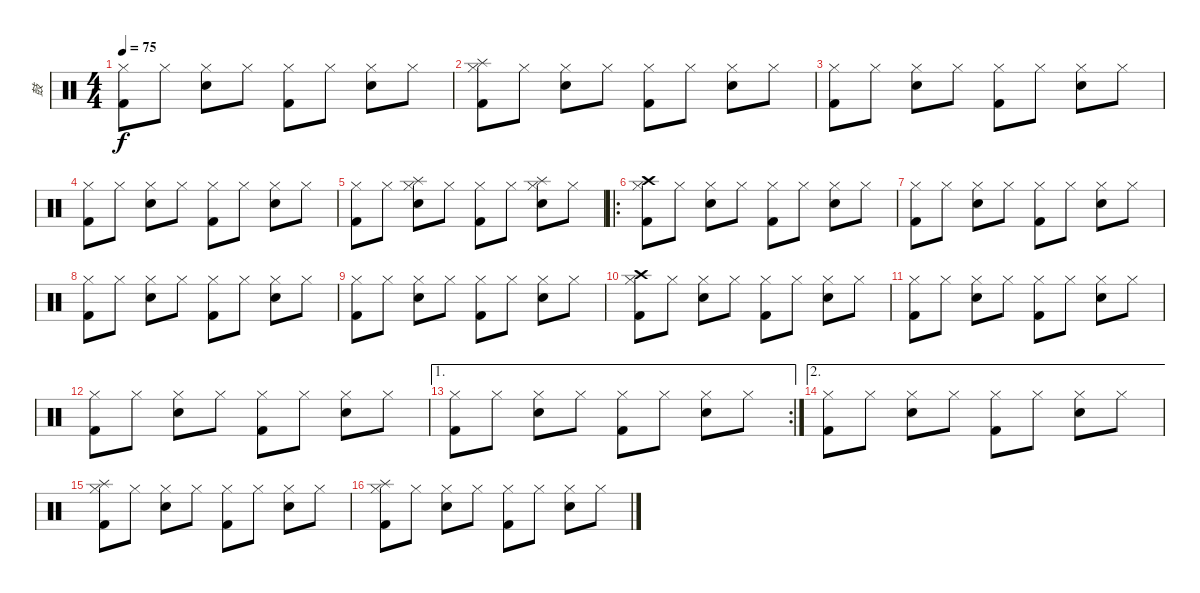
\track ("鼓" "鼓") {instrument percussion}
\staff {score}
\articulation defaults
\ts (4 4)
\tempo 75
\clef neutral
\ks c
("Hi-Hat (closed)" "Kick (hit) 2").8{dy f} "Hi-Hat (closed)".8 ("Hi-Hat (closed)" "Electric Snare (hit)").8 "Hi-Hat (closed)".8 ("Hi-Hat (closed)" "Kick (hit) 2").8 "Hi-Hat (closed)".8 ("Hi-Hat (closed)" "Electric Snare (hit)").8 "Hi-Hat (closed)".8 |
("Hi-Hat (closed)" "Splash (hit)" "Kick (hit) 2").8 "Hi-Hat (closed)".8 ("Hi-Hat (closed)" "Electric Snare (hit)").8 "Hi-Hat (closed)".8 ("Hi-Hat (closed)" "Kick (hit) 2").8 "Hi-Hat (closed)".8 ("Hi-Hat (closed)" "Electric Snare (hit)").8 "Hi-Hat (closed)".8 |
("Hi-Hat (closed)" "Kick (hit) 2").8 "Hi-Hat (closed)".8 ("Hi-Hat (closed)" "Electric Snare (hit)").8 "Hi-Hat (closed)".8 ("Hi-Hat (closed)" "Kick (hit) 2").8 "Hi-Hat (closed)".8 ("Hi-Hat (closed)" "Electric Snare (hit)").8 "Hi-Hat (closed)".8 |
("Hi-Hat (closed)" "Kick (hit) 2").8 "Hi-Hat (closed)".8 ("Hi-Hat (closed)" "Electric Snare (hit)").8 "Hi-Hat (closed)".8 ("Hi-Hat (closed)" "Kick (hit) 2").8 "Hi-Hat (closed)".8 ("Hi-Hat (closed)" "Electric Snare (hit)").8 "Hi-Hat (closed)".8 |
("Hi-Hat (closed)" "Kick (hit) 2").8 "Hi-Hat (closed)".8 ("Hi-Hat (closed)" "Splash (hit)" "Electric Snare (hit)").8 "Hi-Hat (closed)".8 ("Hi-Hat (closed)" "Kick (hit) 2").8 "Hi-Hat (closed)".8 ("Hi-Hat (closed)" "Splash (hit)" "Electric Snare (hit)").8 "Hi-Hat (closed)".8 |
\ro
("Hi-Hat (closed)" "Crash high (hit)" "Kick (hit) 2").8 "Hi-Hat (closed)".8 ("Hi-Hat (closed)" "Electric Snare (hit)").8 "Hi-Hat (closed)".8 ("Hi-Hat (closed)" "Kick (hit) 2").8 "Hi-Hat (closed)".8 ("Hi-Hat (closed)" "Electric Snare (hit)").8 "Hi-Hat (closed)".8 |
("Hi-Hat (closed)" "Kick (hit) 2").8 "Hi-Hat (closed)".8 ("Hi-Hat (closed)" "Electric Snare (hit)").8 "Hi-Hat (closed)".8 ("Hi-Hat (closed)" "Kick (hit) 2").8 "Hi-Hat (closed)".8 ("Hi-Hat (closed)" "Electric Snare (hit)").8 "Hi-Hat (closed)".8 |
("Hi-Hat (closed)" "Kick (hit) 2").8 "Hi-Hat (closed)".8 ("Hi-Hat (closed)" "Electric Snare (hit)").8 "Hi-Hat (closed)".8 ("Hi-Hat (closed)" "Kick (hit) 2").8 "Hi-Hat (closed)".8 ("Hi-Hat (closed)" "Electric Snare (hit)").8 "Hi-Hat (closed)".8 |
("Hi-Hat (closed)" "Kick (hit) 2").8 "Hi-Hat (closed)".8 ("Hi-Hat (closed)" "Electric Snare (hit)").8 "Hi-Hat (closed)".8 ("Hi-Hat (closed)" "Kick (hit) 2").8 "Hi-Hat (closed)".8 ("Hi-Hat (closed)" "Electric Snare (hit)").8 "Hi-Hat (closed)".8 |
("Hi-Hat (closed)" "Crash high (hit)" "Kick (hit) 2").8 "Hi-Hat (closed)".8 ("Hi-Hat (closed)" "Electric Snare (hit)").8 "Hi-Hat (closed)".8 ("Hi-Hat (closed)" "Kick (hit) 2").8 "Hi-Hat (closed)".8 ("Hi-Hat (closed)" "Electric Snare (hit)").8 "Hi-Hat (closed)".8 |
("Hi-Hat (closed)" "Kick (hit) 2").8 "Hi-Hat (closed)".8 ("Hi-Hat (closed)" "Electric Snare (hit)").8 "Hi-Hat (closed)".8 ("Hi-Hat (closed)" "Kick (hit) 2").8 "Hi-Hat (closed)".8 ("Hi-Hat (closed)" "Electric Snare (hit)").8 "Hi-Hat (closed)".8 |
("Hi-Hat (closed)" "Kick (hit) 2").8 "Hi-Hat (closed)".8 ("Hi-Hat (closed)" "Electric Snare (hit)").8 "Hi-Hat (closed)".8 ("Hi-Hat (closed)" "Kick (hit) 2").8 "Hi-Hat (closed)".8 ("Hi-Hat (closed)" "Electric Snare (hit)").8 "Hi-Hat (closed)".8 |
\ae 1
\rc 2
("Hi-Hat (closed)" "Kick (hit) 2").8 "Hi-Hat (closed)".8 ("Hi-Hat (closed)" "Electric Snare (hit)").8 "Hi-Hat (closed)".8 ("Hi-Hat (closed)" "Kick (hit) 2").8 "Hi-Hat (closed)".8 ("Hi-Hat (closed)" "Electric Snare (hit)").8 "Hi-Hat (closed)".8 |
\ae 2
("Hi-Hat (closed)" "Kick (hit) 2").8 "Hi-Hat (closed)".8 ("Hi-Hat (closed)" "Electric Snare (hit)").8 "Hi-Hat (closed)".8 ("Hi-Hat (closed)" "Kick (hit) 2").8 "Hi-Hat (closed)".8 ("Hi-Hat (closed)" "Electric Snare (hit)").8 "Hi-Hat (closed)".8 |
("Hi-Hat (closed)" "Splash (hit)" "Kick (hit) 2").8 "Hi-Hat (closed)".8 ("Hi-Hat (closed)" "Electric Snare (hit)").8 "Hi-Hat (closed)".8 ("Hi-Hat (closed)" "Kick (hit) 2").8 "Hi-Hat (closed)".8 ("Hi-Hat (closed)" "Electric Snare (hit)").8 "Hi-Hat (closed)".8 |
("Hi-Hat (closed)" "Splash (hit)" "Kick (hit) 2").8 "Hi-Hat (closed)".8 ("Hi-Hat (closed)" "Electric Snare (hit)").8 "Hi-Hat (closed)".8 ("Hi-Hat (closed)" "Kick (hit) 2").8 "Hi-Hat (closed)".8 ("Hi-Hat (closed)" "Electric Snare (hit)").8 "Hi-Hat (closed)".8
